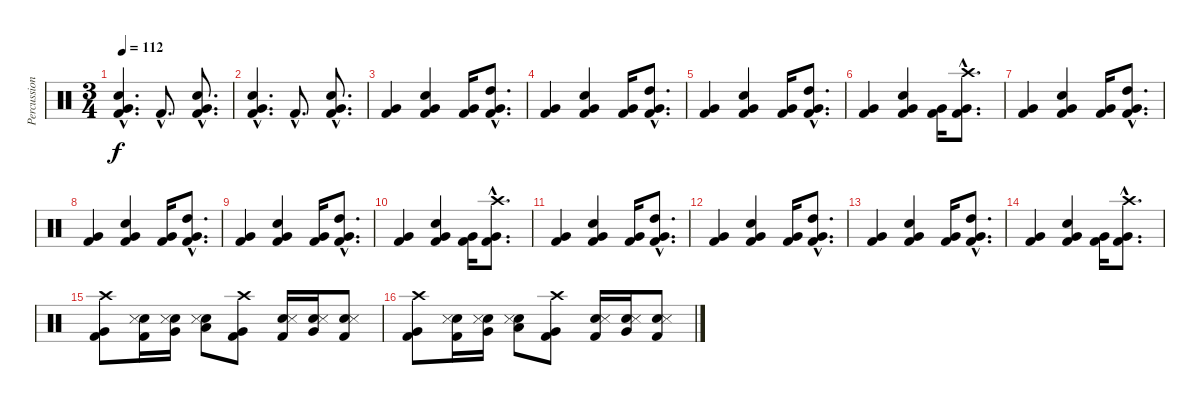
\track ("Percussions" "Percussion") {instrument percussion}
\staff {score}
\articulation defaults
\ts (3 4)
\tempo 112
\clef neutral
\ks c
("Kick (hit) 2"{hac} "Very Low Tom (hit)"{hac} "Electric Snare (hit)"{hac}).4{d dy f} "Kick (hit) 2"{hac}.8{d} ("Kick (hit) 2"{hac} "Very Low Tom (hit)"{hac} "Electric Snare (hit)"{hac}).8{d} |
("Kick (hit) 2"{hac} "Very Low Tom (hit)"{hac} "Electric Snare (hit)"{hac}).4{d} "Kick (hit) 2"{hac}.8{d} ("Kick (hit) 2"{hac} "Very Low Tom (hit)"{hac} "Electric Snare (hit)"{hac}).8{d} |
("Kick (hit) 2" "Very Low Tom (hit)").4 ("Kick (hit) 2" "Very Low Tom (hit)" "Electric Snare (hit)").4 ("Kick (hit) 2" "Very Low Tom (hit)").16 ("High Tom (hit)"{hac} "Kick (hit) 2"{hac} "Very Low Tom (hit)"{hac}).8{d} |
("Kick (hit) 2" "Very Low Tom (hit)").4 ("Kick (hit) 2" "Very Low Tom (hit)" "Electric Snare (hit)").4 ("Kick (hit) 2" "Very Low Tom (hit)").16 ("High Tom (hit)"{hac} "Kick (hit) 2"{hac} "Very Low Tom (hit)"{hac}).8{d} |
("Kick (hit) 2" "Very Low Tom (hit)").4 ("Kick (hit) 2" "Very Low Tom (hit)" "Electric Snare (hit)").4 ("Kick (hit) 2" "Very Low Tom (hit)").16 ("High Tom (hit)"{hac} "Kick (hit) 2"{hac} "Very Low Tom (hit)"{hac}).8{d} |
("Kick (hit) 2" "Very Low Tom (hit)").4 ("Kick (hit) 2" "Very Low Tom (hit)" "Electric Snare (hit)").4 ("Kick (hit) 2" "Very Low Tom (hit)").16 ("Crash high (hit)"{hac} "Kick (hit) 2"{hac} "Very Low Tom (hit)"{hac}).8{d} |
("Kick (hit) 2" "Very Low Tom (hit)").4 ("Kick (hit) 2" "Very Low Tom (hit)" "Electric Snare (hit)").4 ("Kick (hit) 2" "Very Low Tom (hit)").16 ("High Tom (hit)"{hac} "Kick (hit) 2"{hac} "Very Low Tom (hit)"{hac}).8{d} |
("Kick (hit) 2" "Very Low Tom (hit)").4 ("Kick (hit) 2" "Very Low Tom (hit)" "Electric Snare (hit)").4 ("Kick (hit) 2" "Very Low Tom (hit)").16 ("High Tom (hit)"{hac} "Kick (hit) 2"{hac} "Very Low Tom (hit)"{hac}).8{d} |
("Kick (hit) 2" "Very Low Tom (hit)").4 ("Kick (hit) 2" "Very Low Tom (hit)" "Electric Snare (hit)").4 ("Kick (hit) 2" "Very Low Tom (hit)").16 ("High Tom (hit)"{hac} "Kick (hit) 2"{hac} "Very Low Tom (hit)"{hac}).8{d} |
("Kick (hit) 2" "Very Low Tom (hit)").4 ("Kick (hit) 2" "Very Low Tom (hit)" "Electric Snare (hit)").4 ("Kick (hit) 2" "Very Low Tom (hit)").16 ("Crash high (hit)"{hac} "Kick (hit) 2"{hac} "Very Low Tom (hit)"{hac}).8{d} |
("Kick (hit) 2" "Very Low Tom (hit)").4 ("Kick (hit) 2" "Very Low Tom (hit)" "Electric Snare (hit)").4 ("Kick (hit) 2" "Very Low Tom (hit)").16 ("High Tom (hit)"{hac} "Kick (hit) 2"{hac} "Very Low Tom (hit)"{hac}).8{d} |
("Kick (hit) 2" "Very Low Tom (hit)").4 ("Kick (hit) 2" "Very Low Tom (hit)" "Electric Snare (hit)").4 ("Kick (hit) 2" "Very Low Tom (hit)").16 ("High Tom (hit)"{hac} "Kick (hit) 2"{hac} "Very Low Tom (hit)"{hac}).8{d} |
("Kick (hit) 2" "Very Low Tom (hit)").4 ("Kick (hit) 2" "Very Low Tom (hit)" "Electric Snare (hit)").4 ("Kick (hit) 2" "Very Low Tom (hit)").16 ("High Tom (hit)"{hac} "Kick (hit) 2"{hac} "Very Low Tom (hit)"{hac}).8{d} |
("Kick (hit) 2" "Very Low Tom (hit)").4 ("Kick (hit) 2" "Very Low Tom (hit)" "Electric Snare (hit)").4 ("Kick (hit) 2" "Very Low Tom (hit)").16 ("Crash high (hit)"{hac} "Kick (hit) 2"{hac} "Very Low Tom (hit)"{hac}).8{d} |
("Crash high (hit)" "Kick (hit) 2" "Very Low Tom (hit)").8 ("Electric Snare (hit)" "Snare (side stick) 3" "Kick (hit) 2").16 ("Electric Snare (hit)" "Snare (side stick) 3" "Very Low Tom (hit)").16 ("Electric Snare (hit)" "Snare (side stick) 3" "Low Floor Tom (hit)").8 ("Crash high (hit)" "Kick (hit) 2" "Very Low Tom (hit)").8 ("Electric Snare (hit)" "Snare (side stick) 3" "Kick (hit) 2").16 ("Electric Snare (hit)" "Snare (side stick) 3" "Very Low Tom (hit)").16 ("Electric Snare (hit)" "Snare (side stick) 3" "Kick (hit) 2").8 |
("Crash high (hit)" "Kick (hit) 2" "Very Low Tom (hit)").8 ("Electric Snare (hit)" "Snare (side stick) 3" "Kick (hit) 2").16 ("Electric Snare (hit)" "Snare (side stick) 3" "Very Low Tom (hit)").16 ("Electric Snare (hit)" "Snare (side stick) 3" "Low Floor Tom (hit)").8 ("Crash high (hit)" "Kick (hit) 2" "Very Low Tom (hit)").8 ("Electric Snare (hit)" "Snare (side stick) 3" "Kick (hit) 2").16 ("Electric Snare (hit)" "Snare (side stick) 3" "Very Low Tom (hit)").16 ("Electric Snare (hit)" "Snare (side stick) 3" "Kick (hit) 2").8
